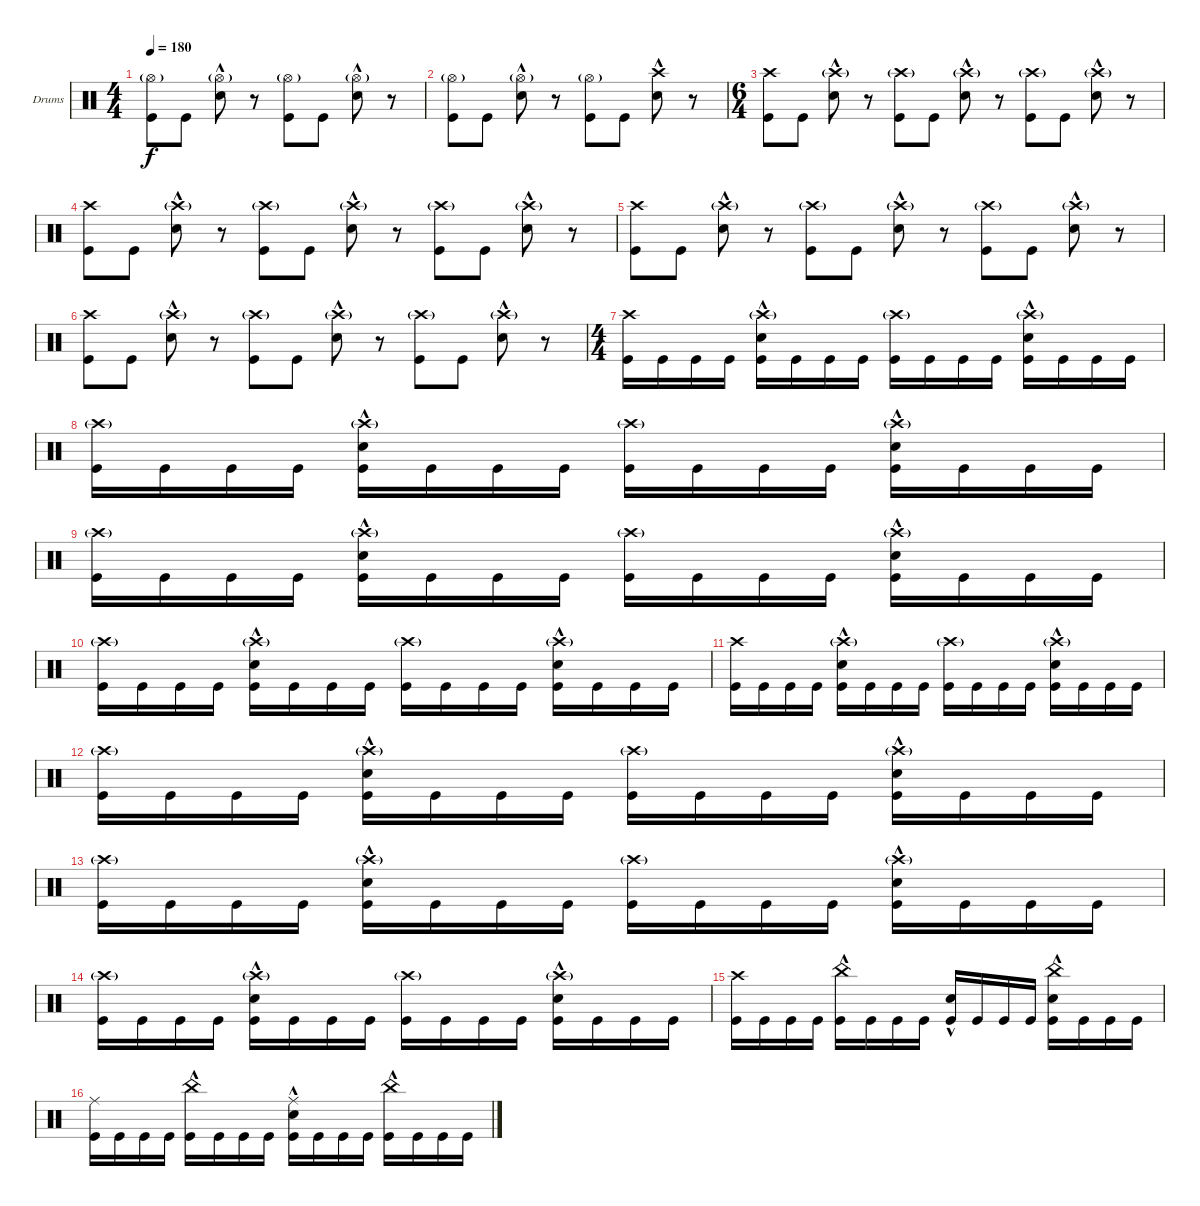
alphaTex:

\bracketExtendMode groupsimilarinstruments
\firstSystemTrackNameOrientation horizontal
\otherSystemsTrackNameOrientation horizontal
\track ("Drumkit" "Drums") {instrument percussion}
\staff {score}
\articulation defaults
\ts (4 4)
\tempo 180
\clef neutral
\scale
0.262911
\ks c
("Kick (hit)" "Hi-Hat (open)"{g}).8{dy f} "Kick (hit)".8 ("Hi-Hat (open)"{g} "Snare (hit) 2"{hac}).8 r.8 ("Hi-Hat (open)"{g} "Kick (hit)").8 "Kick (hit)".8 ("Hi-Hat (open)"{g} "Snare (hit) 2"{hac}).8 r.8 |
\scale
0.262911 ("Kick (hit)" "Hi-Hat (open)"{g}).8 "Kick (hit)".8 ("Hi-Hat (open)"{g} "Snare (hit) 2"{hac}).8 r.8 ("Hi-Hat (open)"{g} "Kick (hit)").8 "Kick (hit)".8 ("Snare (hit) 2"{hac} "Crash high (hit)").8 r.8 |
\ts (6 4)
\scale
0.474178 ("Kick (hit)" "Crash high (hit)").8 "Kick (hit)".8 ("Snare (hit) 2"{hac} "Crash high (hit)"{g}).8 r.8 ("Kick (hit)" "Crash high (hit)"{g}).8 "Kick (hit)".8 ("Snare (hit) 2"{hac} "Crash high (hit)"{g}).8 r.8 ("Kick (hit)" "Crash high (hit)"{g}).8 "Kick (hit)".8 ("Snare (hit) 2"{hac} "Crash high (hit)"{g}).8 r.8 |
\scale
0.333333 ("Kick (hit)" "Crash high (hit)").8 "Kick (hit)".8 ("Snare (hit) 2"{hac} "Crash high (hit)"{g}).8 r.8 ("Kick (hit)" "Crash high (hit)"{g}).8 "Kick (hit)".8 ("Snare (hit) 2"{hac} "Crash high (hit)"{g}).8 r.8 ("Kick (hit)" "Crash high (hit)"{g}).8 "Kick (hit)".8 ("Snare (hit) 2"{hac} "Crash high (hit)"{g}).8 r.8 |
\scale
0.333333 ("Kick (hit)" "Crash high (hit)").8 "Kick (hit)".8 ("Snare (hit) 2"{hac} "Crash high (hit)"{g}).8 r.8 ("Kick (hit)" "Crash high (hit)"{g}).8 "Kick (hit)".8 ("Snare (hit) 2"{hac} "Crash high (hit)"{g}).8 r.8 ("Kick (hit)" "Crash high (hit)"{g}).8 "Kick (hit)".8 ("Snare (hit) 2"{hac} "Crash high (hit)"{g}).8 r.8 |
\scale
0.333333 ("Kick (hit)" "Crash high (hit)").8 "Kick (hit)".8 ("Snare (hit) 2"{hac} "Crash high (hit)"{g}).8 r.8 ("Kick (hit)" "Crash high (hit)"{g}).8 "Kick (hit)".8 ("Snare (hit) 2"{hac} "Crash high (hit)"{g}).8 r.8 ("Kick (hit)" "Crash high (hit)"{g}).8 "Kick (hit)".8 ("Snare (hit) 2"{hac} "Crash high (hit)"{g}).8 r.8 |
\ts (4 4)
\scale
0.474178 ("Kick (hit)" "Crash high (hit)").16 "Kick (hit)".16 "Kick (hit)".16 "Kick (hit)".16 ("Kick (hit)" "Snare (hit) 2"{hac} "Crash high (hit)"{g}).16 "Kick (hit)".16 "Kick (hit)".16 "Kick (hit)".16 ("Kick (hit)" "Crash high (hit)"{g}).16 "Kick (hit)".16 "Kick (hit)".16 "Kick (hit)".16 ("Kick (hit)" "Snare (hit) 2"{hac} "Crash high (hit)"{g}).16 "Kick (hit)".16 "Kick (hit)".16 "Kick (hit)".16 |
\scale
0.262911 ("Kick (hit)" "Crash high (hit)"{g}).16 "Kick (hit)".16 "Kick (hit)".16 "Kick (hit)".16 ("Kick (hit)" "Snare (hit) 2"{hac} "Crash high (hit)"{g}).16 "Kick (hit)".16 "Kick (hit)".16 "Kick (hit)".16 ("Kick (hit)" "Crash high (hit)"{g}).16 "Kick (hit)".16 "Kick (hit)".16 "Kick (hit)".16 ("Kick (hit)" "Snare (hit) 2"{hac} "Crash high (hit)"{g}).16 "Kick (hit)".16 "Kick (hit)".16 "Kick (hit)".16 |
\scale
0.262911 ("Kick (hit)" "Crash high (hit)"{g}).16 "Kick (hit)".16 "Kick (hit)".16 "Kick (hit)".16 ("Kick (hit)" "Snare (hit) 2"{hac} "Crash high (hit)"{g}).16 "Kick (hit)".16 "Kick (hit)".16 "Kick (hit)".16 ("Kick (hit)" "Crash high (hit)"{g}).16 "Kick (hit)".16 "Kick (hit)".16 "Kick (hit)".16 ("Kick (hit)" "Snare (hit) 2"{hac} "Crash high (hit)"{g}).16 "Kick (hit)".16 "Kick (hit)".16 "Kick (hit)".16 |
\scale
0.333333 ("Kick (hit)" "Crash high (hit)"{g}).16 "Kick (hit)".16 "Kick (hit)".16 "Kick (hit)".16 ("Kick (hit)" "Snare (hit) 2"{hac} "Crash high (hit)"{g}).16 "Kick (hit)".16 "Kick (hit)".16 "Kick (hit)".16 ("Kick (hit)" "Crash high (hit)"{g}).16 "Kick (hit)".16 "Kick (hit)".16 "Kick (hit)".16 ("Kick (hit)" "Snare (hit) 2"{hac} "Crash high (hit)"{g}).16 "Kick (hit)".16 "Kick (hit)".16 "Kick (hit)".16 |
\scale
0.333333 ("Kick (hit)" "Crash high (hit)").16 "Kick (hit)".16 "Kick (hit)".16 "Kick (hit)".16 ("Kick (hit)" "Snare (hit) 2"{hac} "Crash high (hit)"{g}).16 "Kick (hit)".16 "Kick (hit)".16 "Kick (hit)".16 ("Kick (hit)" "Crash high (hit)"{g}).16 "Kick (hit)".16 "Kick (hit)".16 "Kick (hit)".16 ("Kick (hit)" "Snare (hit) 2"{hac} "Crash high (hit)"{g}).16 "Kick (hit)".16 "Kick (hit)".16 "Kick (hit)".16 |
\scale
0.333333 ("Kick (hit)" "Crash high (hit)"{g}).16 "Kick (hit)".16 "Kick (hit)".16 "Kick (hit)".16 ("Kick (hit)" "Snare (hit) 2"{hac} "Crash high (hit)"{g}).16 "Kick (hit)".16 "Kick (hit)".16 "Kick (hit)".16 ("Kick (hit)" "Crash high (hit)"{g}).16 "Kick (hit)".16 "Kick (hit)".16 "Kick (hit)".16 ("Kick (hit)" "Snare (hit) 2"{hac} "Crash high (hit)"{g}).16 "Kick (hit)".16 "Kick (hit)".16 "Kick (hit)".16 |
\scale
0.333333 ("Kick (hit)" "Crash high (hit)"{g}).16 "Kick (hit)".16 "Kick (hit)".16 "Kick (hit)".16 ("Kick (hit)" "Snare (hit) 2"{hac} "Crash high (hit)"{g}).16 "Kick (hit)".16 "Kick (hit)".16 "Kick (hit)".16 ("Kick (hit)" "Crash high (hit)"{g}).16 "Kick (hit)".16 "Kick (hit)".16 "Kick (hit)".16 ("Kick (hit)" "Snare (hit) 2"{hac} "Crash high (hit)"{g}).16 "Kick (hit)".16 "Kick (hit)".16 "Kick (hit)".16 |
\scale
0.333333 ("Kick (hit)" "Crash high (hit)"{g}).16 "Kick (hit)".16 "Kick (hit)".16 "Kick (hit)".16 ("Kick (hit)" "Snare (hit) 2"{hac} "Crash high (hit)"{g}).16 "Kick (hit)".16 "Kick (hit)".16 "Kick (hit)".16 ("Kick (hit)" "Crash high (hit)"{g}).16 "Kick (hit)".16 "Kick (hit)".16 "Kick (hit)".16 ("Kick (hit)" "Snare (hit) 2"{hac} "Crash high (hit)"{g}).16 "Kick (hit)".16 "Kick (hit)".16 "Kick (hit)".16 |
\scale
0.333333 ("Kick (hit)" "Crash high (hit)").16 "Kick (hit)".16 "Kick (hit)".16 "Kick (hit)".16 ("Kick (hit)" "China (hit)"{hac}).16 "Kick (hit)".16 "Kick (hit)".16 "Kick (hit)".16 ("Kick (hit)" "Snare (hit) 2"{hac}).16 "Kick (hit)".16 "Kick (hit)".16 "Kick (hit)".16 ("Kick (hit)" "Snare (hit) 2"{hac} "China (hit)"{hac}).16 "Kick (hit)".16 "Kick (hit)".16 "Kick (hit)".16 |
\scale
0.333333 ("Kick (hit)" "Ride (middle)").16 "Kick (hit)".16 "Kick (hit)".16 "Kick (hit)".16 ("Kick (hit)" "China (hit)"{hac}).16 "Kick (hit)".16 "Kick (hit)".16 "Kick (hit)".16 ("Kick (hit)" "Snare (hit) 2"{hac} "Ride (middle)").16 "Kick (hit)".16 "Kick (hit)".16 "Kick (hit)".16 ("Kick (hit)" "China (hit)"{hac}).16 "Kick (hit)".16 "Kick (hit)".16 "Kick (hit)".16
